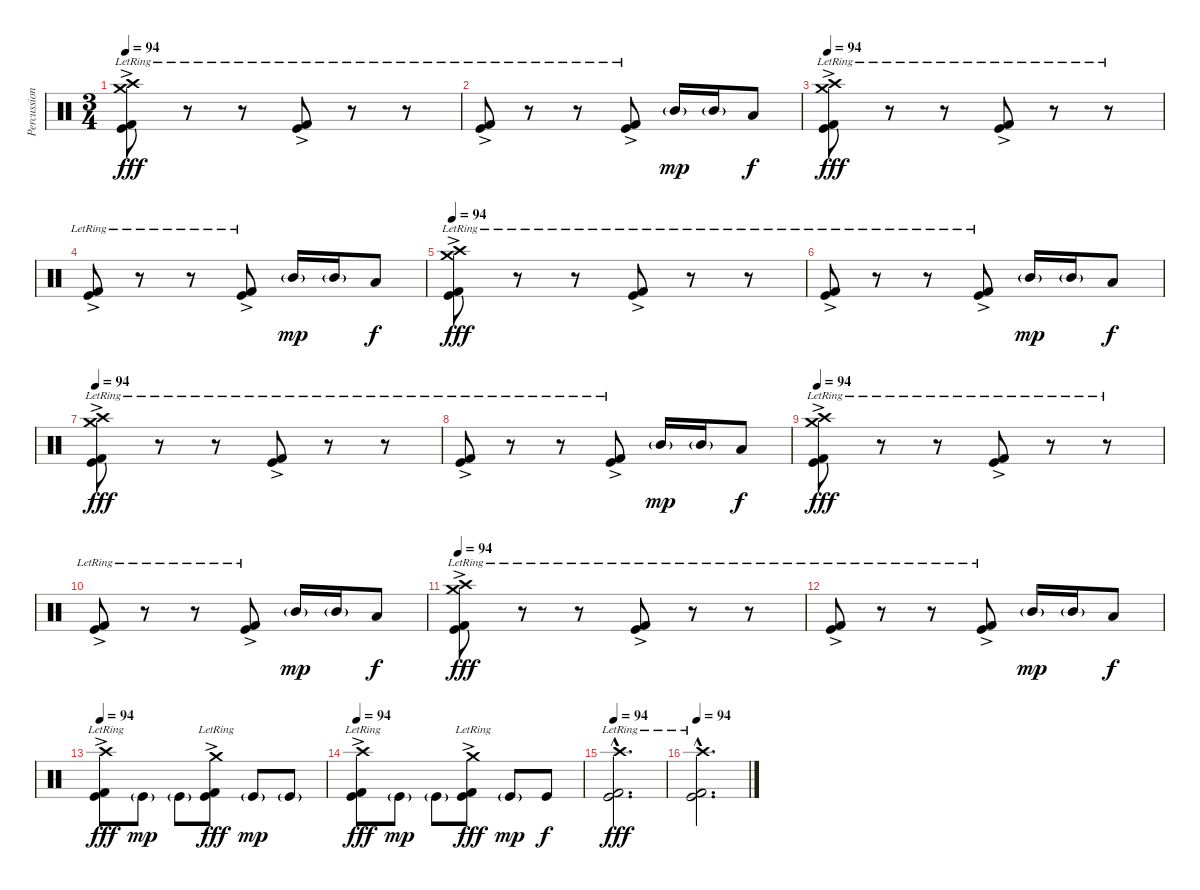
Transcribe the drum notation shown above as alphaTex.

\track ("Percussion" "Percussion") {instrument percussion}
\staff {score}
\articulation defaults
\ts (3 4)
\tempo 94
\clef neutral
\ks c
("Crash high (hit)" "Crash medium (hit)" "Kick (hit)" "Kick (hit) 2"{ac lr}).8{dy fff} r.8 r.8 ("Kick (hit)" "Kick (hit) 2"{ac lr}).8 r.8 r.8 |
("Kick (hit)" "Kick (hit) 2"{ac lr}).8 r.8 r.8 ("Kick (hit)" "Kick (hit) 2"{ac lr}).8 "Mid Tom (hit)"{g}.16{dy mp} "Mid Tom (hit)"{g}.16 "Low Tom (hit)".8{dy f} |
\tempo 94
("Crash high (hit)" "Crash medium (hit)" "Kick (hit)" "Kick (hit) 2"{ac lr}).8{dy fff} r.8 r.8 ("Kick (hit)" "Kick (hit) 2"{ac lr}).8 r.8 r.8 |
("Kick (hit)" "Kick (hit) 2"{ac lr}).8 r.8 r.8 ("Kick (hit)" "Kick (hit) 2"{ac lr}).8 "Mid Tom (hit)"{g}.16{dy mp} "Mid Tom (hit)"{g}.16 "Low Tom (hit)".8{dy f} |
\tempo 94
("Crash high (hit)" "Crash medium (hit)" "Kick (hit)" "Kick (hit) 2"{ac lr}).8{dy fff} r.8 r.8 ("Kick (hit)" "Kick (hit) 2"{ac lr}).8 r.8 r.8 |
("Kick (hit)" "Kick (hit) 2"{ac lr}).8 r.8 r.8 ("Kick (hit)" "Kick (hit) 2"{ac lr}).8 "Mid Tom (hit)"{g}.16{dy mp} "Mid Tom (hit)"{g}.16 "Low Tom (hit)".8{dy f} |
\tempo 94
("Crash high (hit)" "Crash medium (hit)" "Kick (hit)" "Kick (hit) 2"{ac lr}).8{dy fff} r.8 r.8 ("Kick (hit)" "Kick (hit) 2"{ac lr}).8 r.8 r.8 |
("Kick (hit)" "Kick (hit) 2"{ac lr}).8 r.8 r.8 ("Kick (hit)" "Kick (hit) 2"{ac lr}).8 "Mid Tom (hit)"{g}.16{dy mp} "Mid Tom (hit)"{g}.16 "Low Tom (hit)".8{dy f} |
\tempo 94
("Crash high (hit)" "Crash medium (hit)" "Kick (hit)" "Kick (hit) 2"{ac lr}).8{dy fff} r.8 r.8 ("Kick (hit)" "Kick (hit) 2"{ac lr}).8 r.8 r.8 |
("Kick (hit)" "Kick (hit) 2"{ac lr}).8 r.8 r.8 ("Kick (hit)" "Kick (hit) 2"{ac lr}).8 "Mid Tom (hit)"{g}.16{dy mp} "Mid Tom (hit)"{g}.16 "Low Tom (hit)".8{dy f} |
\tempo 94
("Crash high (hit)" "Crash medium (hit)" "Kick (hit)" "Kick (hit) 2"{ac lr}).8{dy fff} r.8 r.8 ("Kick (hit)" "Kick (hit) 2"{ac lr}).8 r.8 r.8 |
("Kick (hit)" "Kick (hit) 2"{ac lr}).8 r.8 r.8 ("Kick (hit)" "Kick (hit) 2"{ac lr}).8 "Mid Tom (hit)"{g}.16{dy mp} "Mid Tom (hit)"{g}.16 "Low Tom (hit)".8{dy f} |
\tempo 94
("Crash high (hit)" "Kick (hit)" "Kick (hit) 2"{ac lr}).8{dy fff} "Kick (hit)"{g}.8{dy mp} "Kick (hit)"{g}.8 ("Crash medium (hit)" "Kick (hit)" "Kick (hit) 2"{ac lr}).8{dy fff} "Kick (hit)"{g}.8{dy mp} "Kick (hit)"{g}.8 |
\tempo 94
("Crash high (hit)" "Kick (hit)" "Kick (hit) 2"{ac lr}).8{dy fff} "Kick (hit)"{g}.8{dy mp} "Kick (hit)"{g}.8 ("Crash medium (hit)" "Kick (hit)" "Kick (hit) 2"{ac lr}).8{dy fff} "Kick (hit)"{g}.8{dy mp} "Kick (hit)".8{dy f} |
\tempo 94
("Crash high (hit)"{hac} "Kick (hit)"{hac} "Kick (hit) 2"{hac lr}).2{d dy fff} |
\tempo 94
("Crash high (hit)"{hac} "Kick (hit)"{hac} "Kick (hit) 2"{hac lr}).2{d}
